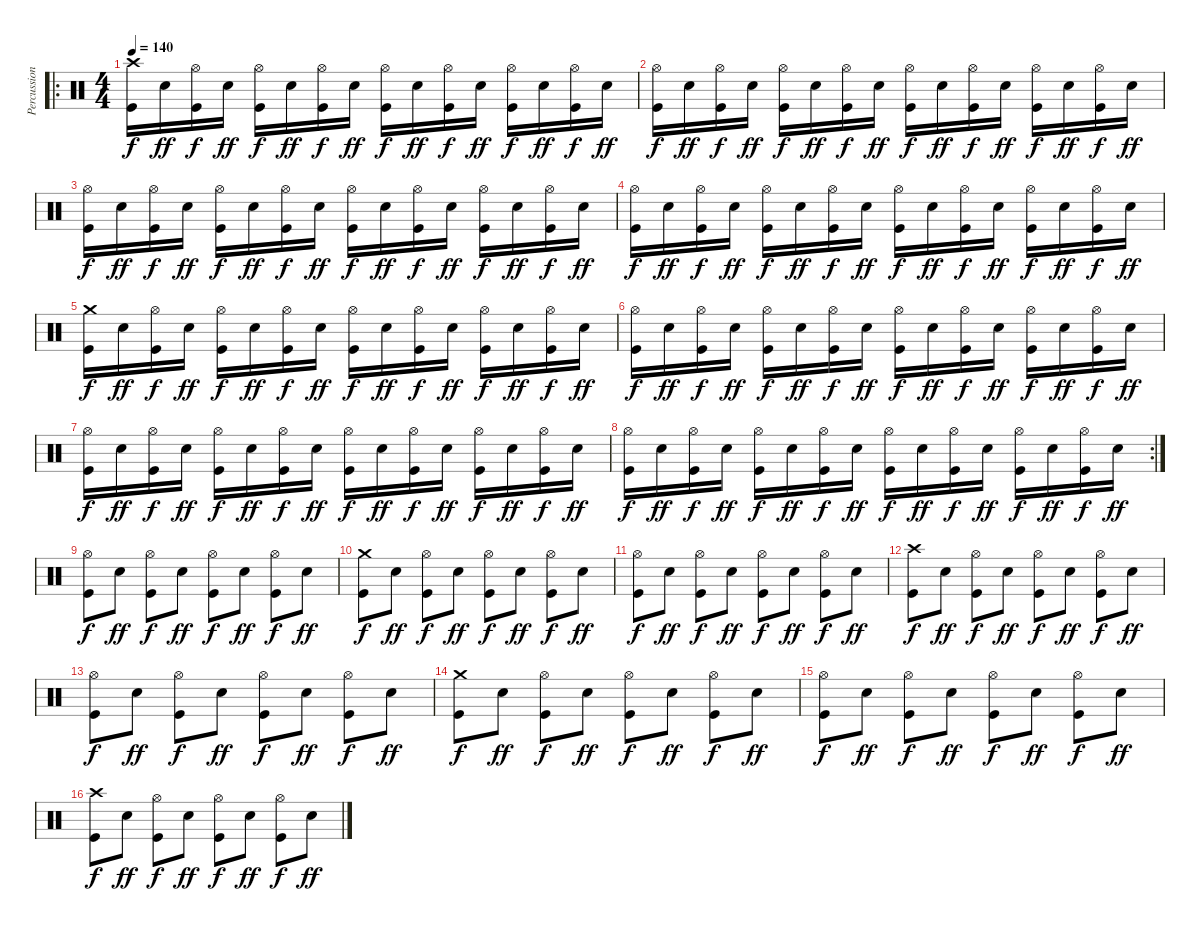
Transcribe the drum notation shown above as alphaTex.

\track ("Percussions" "Percussion") {instrument percussion}
\staff {score}
\articulation defaults
\ro
\ts (4 4)
\tempo 140
\clef neutral
\ks c
("Crash high (hit)" "Kick (hit)").16{dy f} "Snare (hit) 2".16{dy ff} ("Hi-Hat (open)" "Kick (hit)").16{dy f} "Snare (hit) 2".16{dy ff} ("Hi-Hat (open)" "Kick (hit)").16{dy f} "Snare (hit) 2".16{dy ff} ("Hi-Hat (open)" "Kick (hit)").16{dy f} "Snare (hit) 2".16{dy ff} ("Hi-Hat (open)" "Kick (hit)").16{dy f} "Snare (hit) 2".16{dy ff} ("Hi-Hat (open)" "Kick (hit)").16{dy f} "Snare (hit) 2".16{dy ff} ("Hi-Hat (open)" "Kick (hit)").16{dy f} "Snare (hit) 2".16{dy ff} ("Hi-Hat (open)" "Kick (hit)").16{dy f} "Snare (hit) 2".16{dy ff} |
("Hi-Hat (open)" "Kick (hit)").16{dy f} "Snare (hit) 2".16{dy ff} ("Hi-Hat (open)" "Kick (hit)").16{dy f} "Snare (hit) 2".16{dy ff} ("Hi-Hat (open)" "Kick (hit)").16{dy f} "Snare (hit) 2".16{dy ff} ("Hi-Hat (open)" "Kick (hit)").16{dy f} "Snare (hit) 2".16{dy ff} ("Hi-Hat (open)" "Kick (hit)").16{dy f} "Snare (hit) 2".16{dy ff} ("Hi-Hat (open)" "Kick (hit)").16{dy f} "Snare (hit) 2".16{dy ff} ("Hi-Hat (open)" "Kick (hit)").16{dy f} "Snare (hit) 2".16{dy ff} ("Hi-Hat (open)" "Kick (hit)").16{dy f} "Snare (hit) 2".16{dy ff} |
("Hi-Hat (open)" "Kick (hit)").16{dy f} "Snare (hit) 2".16{dy ff} ("Hi-Hat (open)" "Kick (hit)").16{dy f} "Snare (hit) 2".16{dy ff} ("Hi-Hat (open)" "Kick (hit)").16{dy f} "Snare (hit) 2".16{dy ff} ("Hi-Hat (open)" "Kick (hit)").16{dy f} "Snare (hit) 2".16{dy ff} ("Hi-Hat (open)" "Kick (hit)").16{dy f} "Snare (hit) 2".16{dy ff} ("Hi-Hat (open)" "Kick (hit)").16{dy f} "Snare (hit) 2".16{dy ff} ("Hi-Hat (open)" "Kick (hit)").16{dy f} "Snare (hit) 2".16{dy ff} ("Hi-Hat (open)" "Kick (hit)").16{dy f} "Snare (hit) 2".16{dy ff} |
("Hi-Hat (open)" "Kick (hit)").16{dy f} "Snare (hit) 2".16{dy ff} ("Hi-Hat (open)" "Kick (hit)").16{dy f} "Snare (hit) 2".16{dy ff} ("Hi-Hat (open)" "Kick (hit)").16{dy f} "Snare (hit) 2".16{dy ff} ("Hi-Hat (open)" "Kick (hit)").16{dy f} "Snare (hit) 2".16{dy ff} ("Hi-Hat (open)" "Kick (hit)").16{dy f} "Snare (hit) 2".16{dy ff} ("Hi-Hat (open)" "Kick (hit)").16{dy f} "Snare (hit) 2".16{dy ff} ("Hi-Hat (open)" "Kick (hit)").16{dy f} "Snare (hit) 2".16{dy ff} ("Hi-Hat (open)" "Kick (hit)").16{dy f} "Snare (hit) 2".16{dy ff} |
("Crash medium (hit)" "Kick (hit)").16{dy f} "Snare (hit) 2".16{dy ff} ("Hi-Hat (open)" "Kick (hit)").16{dy f} "Snare (hit) 2".16{dy ff} ("Hi-Hat (open)" "Kick (hit)").16{dy f} "Snare (hit) 2".16{dy ff} ("Hi-Hat (open)" "Kick (hit)").16{dy f} "Snare (hit) 2".16{dy ff} ("Hi-Hat (open)" "Kick (hit)").16{dy f} "Snare (hit) 2".16{dy ff} ("Hi-Hat (open)" "Kick (hit)").16{dy f} "Snare (hit) 2".16{dy ff} ("Hi-Hat (open)" "Kick (hit)").16{dy f} "Snare (hit) 2".16{dy ff} ("Hi-Hat (open)" "Kick (hit)").16{dy f} "Snare (hit) 2".16{dy ff} |
("Hi-Hat (open)" "Kick (hit)").16{dy f} "Snare (hit) 2".16{dy ff} ("Hi-Hat (open)" "Kick (hit)").16{dy f} "Snare (hit) 2".16{dy ff} ("Hi-Hat (open)" "Kick (hit)").16{dy f} "Snare (hit) 2".16{dy ff} ("Hi-Hat (open)" "Kick (hit)").16{dy f} "Snare (hit) 2".16{dy ff} ("Hi-Hat (open)" "Kick (hit)").16{dy f} "Snare (hit) 2".16{dy ff} ("Hi-Hat (open)" "Kick (hit)").16{dy f} "Snare (hit) 2".16{dy ff} ("Hi-Hat (open)" "Kick (hit)").16{dy f} "Snare (hit) 2".16{dy ff} ("Hi-Hat (open)" "Kick (hit)").16{dy f} "Snare (hit) 2".16{dy ff} |
("Hi-Hat (open)" "Kick (hit)").16{dy f} "Snare (hit) 2".16{dy ff} ("Hi-Hat (open)" "Kick (hit)").16{dy f} "Snare (hit) 2".16{dy ff} ("Hi-Hat (open)" "Kick (hit)").16{dy f} "Snare (hit) 2".16{dy ff} ("Hi-Hat (open)" "Kick (hit)").16{dy f} "Snare (hit) 2".16{dy ff} ("Hi-Hat (open)" "Kick (hit)").16{dy f} "Snare (hit) 2".16{dy ff} ("Hi-Hat (open)" "Kick (hit)").16{dy f} "Snare (hit) 2".16{dy ff} ("Hi-Hat (open)" "Kick (hit)").16{dy f} "Snare (hit) 2".16{dy ff} ("Hi-Hat (open)" "Kick (hit)").16{dy f} "Snare (hit) 2".16{dy ff} |
\rc 2
("Hi-Hat (open)" "Kick (hit)").16{dy f} "Snare (hit) 2".16{dy ff} ("Hi-Hat (open)" "Kick (hit)").16{dy f} "Snare (hit) 2".16{dy ff} ("Hi-Hat (open)" "Kick (hit)").16{dy f} "Snare (hit) 2".16{dy ff} ("Hi-Hat (open)" "Kick (hit)").16{dy f} "Snare (hit) 2".16{dy ff} ("Hi-Hat (open)" "Kick (hit)").16{dy f} "Snare (hit) 2".16{dy ff} ("Hi-Hat (open)" "Kick (hit)").16{dy f} "Snare (hit) 2".16{dy ff} ("Hi-Hat (open)" "Kick (hit)").16{dy f} "Snare (hit) 2".16{dy ff} ("Hi-Hat (open)" "Kick (hit)").16{dy f} "Snare (hit) 2".16{dy ff} |
("Hi-Hat (open)" "Kick (hit)").8{dy f} "Snare (hit) 2".8{dy ff} ("Hi-Hat (open)" "Kick (hit)").8{dy f} "Snare (hit) 2".8{dy ff} ("Hi-Hat (open)" "Kick (hit)").8{dy f} "Snare (hit) 2".8{dy ff} ("Hi-Hat (open)" "Kick (hit)").8{dy f} "Snare (hit) 2".8{dy ff} |
("Crash medium (hit)" "Kick (hit)").8{dy f} "Snare (hit) 2".8{dy ff} ("Hi-Hat (open)" "Kick (hit)").8{dy f} "Snare (hit) 2".8{dy ff} ("Hi-Hat (open)" "Kick (hit)").8{dy f} "Snare (hit) 2".8{dy ff} ("Hi-Hat (open)" "Kick (hit)").8{dy f} "Snare (hit) 2".8{dy ff} |
("Hi-Hat (open)" "Kick (hit)").8{dy f} "Snare (hit) 2".8{dy ff} ("Hi-Hat (open)" "Kick (hit)").8{dy f} "Snare (hit) 2".8{dy ff} ("Hi-Hat (open)" "Kick (hit)").8{dy f} "Snare (hit) 2".8{dy ff} ("Hi-Hat (open)" "Kick (hit)").8{dy f} "Snare (hit) 2".8{dy ff} |
("Crash high (hit)" "Kick (hit)").8{dy f} "Snare (hit) 2".8{dy ff} ("Hi-Hat (open)" "Kick (hit)").8{dy f} "Snare (hit) 2".8{dy ff} ("Hi-Hat (open)" "Kick (hit)").8{dy f} "Snare (hit) 2".8{dy ff} ("Hi-Hat (open)" "Kick (hit)").8{dy f} "Snare (hit) 2".8{dy ff} |
("Hi-Hat (open)" "Kick (hit)").8{dy f} "Snare (hit) 2".8{dy ff} ("Hi-Hat (open)" "Kick (hit)").8{dy f} "Snare (hit) 2".8{dy ff} ("Hi-Hat (open)" "Kick (hit)").8{dy f} "Snare (hit) 2".8{dy ff} ("Hi-Hat (open)" "Kick (hit)").8{dy f} "Snare (hit) 2".8{dy ff} |
("Crash medium (hit)" "Kick (hit)").8{dy f} "Snare (hit) 2".8{dy ff} ("Hi-Hat (open)" "Kick (hit)").8{dy f} "Snare (hit) 2".8{dy ff} ("Hi-Hat (open)" "Kick (hit)").8{dy f} "Snare (hit) 2".8{dy ff} ("Hi-Hat (open)" "Kick (hit)").8{dy f} "Snare (hit) 2".8{dy ff} |
("Hi-Hat (open)" "Kick (hit)").8{dy f} "Snare (hit) 2".8{dy ff} ("Hi-Hat (open)" "Kick (hit)").8{dy f} "Snare (hit) 2".8{dy ff} ("Hi-Hat (open)" "Kick (hit)").8{dy f} "Snare (hit) 2".8{dy ff} ("Hi-Hat (open)" "Kick (hit)").8{dy f} "Snare (hit) 2".8{dy ff} |
("Crash high (hit)" "Kick (hit)").8{dy f} "Snare (hit) 2".8{dy ff} ("Hi-Hat (open)" "Kick (hit)").8{dy f} "Snare (hit) 2".8{dy ff} ("Hi-Hat (open)" "Kick (hit)").8{dy f} "Snare (hit) 2".8{dy ff} ("Hi-Hat (open)" "Kick (hit)").8{dy f} "Snare (hit) 2".8{dy ff}
